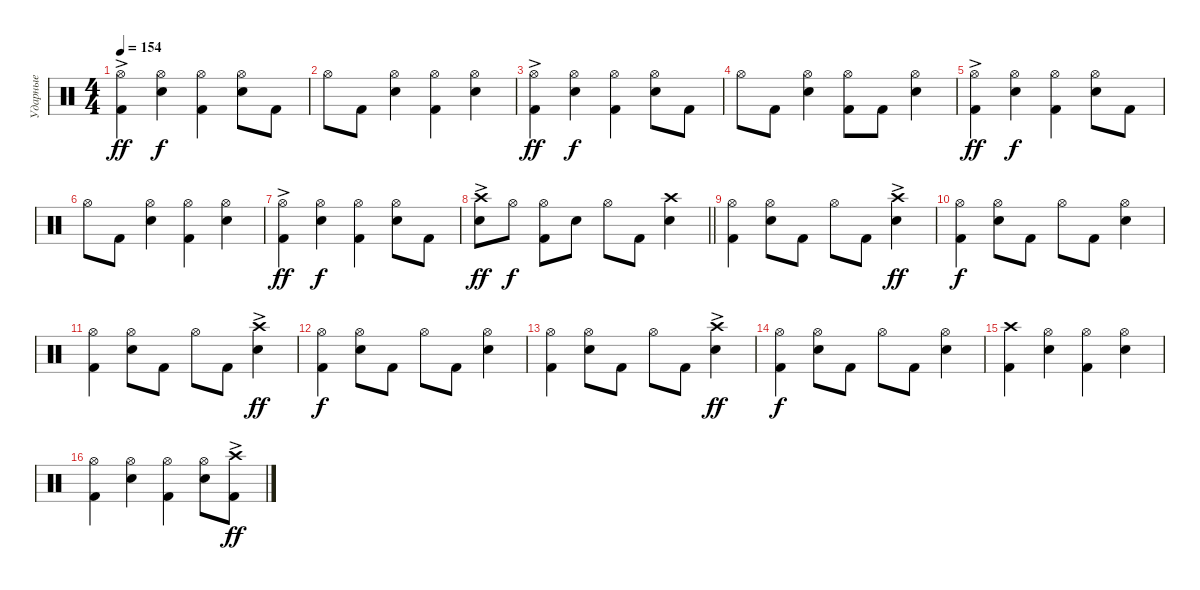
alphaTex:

\track ("Ударные" "Ударные") {instrument percussion}
\staff {score}
\articulation defaults
\ts (4 4)
\tempo 154
\clef neutral
\ks c
("Kick (hit) 2" "Hi-Hat (open)"{ac}).4{dy ff} ("Snare (hit) 2" "Hi-Hat (open)").4{dy f} ("Kick (hit) 2" "Hi-Hat (open)").4 ("Snare (hit) 2" "Hi-Hat (open)").8 "Kick (hit) 2".8 |
"Hi-Hat (open)".8 "Kick (hit) 2".8 ("Snare (hit) 2" "Hi-Hat (open)").4 ("Kick (hit) 2" "Hi-Hat (open)").4 ("Snare (hit) 2" "Hi-Hat (open)").4 |
("Kick (hit) 2" "Hi-Hat (open)"{ac}).4{dy ff} ("Snare (hit) 2" "Hi-Hat (open)").4{dy f} ("Kick (hit) 2" "Hi-Hat (open)").4 ("Snare (hit) 2" "Hi-Hat (open)").8 "Kick (hit) 2".8 |
"Hi-Hat (open)".8 "Kick (hit) 2".8 ("Snare (hit) 2" "Hi-Hat (open)").4 ("Kick (hit) 2" "Hi-Hat (open)").8 "Kick (hit) 2".8 ("Snare (hit) 2" "Hi-Hat (open)").4 |
("Kick (hit) 2" "Hi-Hat (open)"{ac}).4{dy ff} ("Snare (hit) 2" "Hi-Hat (open)").4{dy f} ("Kick (hit) 2" "Hi-Hat (open)").4 ("Snare (hit) 2" "Hi-Hat (open)").8 "Kick (hit) 2".8 |
"Hi-Hat (open)".8 "Kick (hit) 2".8 ("Snare (hit) 2" "Hi-Hat (open)").4 ("Kick (hit) 2" "Hi-Hat (open)").4 ("Snare (hit) 2" "Hi-Hat (open)").4 |
("Kick (hit) 2" "Hi-Hat (open)"{ac}).4{dy ff} ("Snare (hit) 2" "Hi-Hat (open)").4{dy f} ("Kick (hit) 2" "Hi-Hat (open)").4 ("Snare (hit) 2" "Hi-Hat (open)").8 "Kick (hit) 2".8 |
\barLineRight lightlight
("Snare (hit) 2" "Crash high (hit)"{ac}).8{dy ff} "Hi-Hat (open)".8{dy f} ("Kick (hit) 2" "Hi-Hat (open)").8 "Snare (hit) 2".8 "Hi-Hat (open)".8 "Kick (hit) 2".8 ("Snare (hit) 2" "Crash high (hit)").4 |
("Kick (hit) 2" "Hi-Hat (open)").4 ("Snare (hit) 2" "Hi-Hat (open)").8 "Kick (hit) 2".8 "Hi-Hat (open)".8 "Kick (hit) 2".8 ("Snare (hit) 2" "Crash high (hit)"{ac}).4{dy ff} |
("Kick (hit) 2" "Hi-Hat (open)").4{dy f} ("Snare (hit) 2" "Hi-Hat (open)").8 "Kick (hit) 2".8 "Hi-Hat (open)".8 "Kick (hit) 2".8 ("Snare (hit) 2" "Hi-Hat (open)").4 |
("Kick (hit) 2" "Hi-Hat (open)").4 ("Snare (hit) 2" "Hi-Hat (open)").8 "Kick (hit) 2".8 "Hi-Hat (open)".8 "Kick (hit) 2".8 ("Snare (hit) 2" "Crash high (hit)"{ac}).4{dy ff} |
("Kick (hit) 2" "Hi-Hat (open)").4{dy f} ("Snare (hit) 2" "Hi-Hat (open)").8 "Kick (hit) 2".8 "Hi-Hat (open)".8 "Kick (hit) 2".8 ("Snare (hit) 2" "Hi-Hat (open)").4 |
("Kick (hit) 2" "Hi-Hat (open)").4 ("Snare (hit) 2" "Hi-Hat (open)").8 "Kick (hit) 2".8 "Hi-Hat (open)".8 "Kick (hit) 2".8 ("Snare (hit) 2" "Crash high (hit)"{ac}).4{dy ff} |
("Kick (hit) 2" "Hi-Hat (open)").4{dy f} ("Snare (hit) 2" "Hi-Hat (open)").8 "Kick (hit) 2".8 "Hi-Hat (open)".8 "Kick (hit) 2".8 ("Snare (hit) 2" "Hi-Hat (open)").4 |
("Kick (hit) 2" "Crash high (hit)").4 ("Snare (hit) 2" "Hi-Hat (open)").4 ("Kick (hit) 2" "Hi-Hat (open)").4 ("Snare (hit) 2" "Hi-Hat (open)").4 |
("Kick (hit) 2" "Hi-Hat (open)").4 ("Snare (hit) 2" "Hi-Hat (open)").4 ("Kick (hit) 2" "Hi-Hat (open)").4 ("Snare (hit) 2" "Hi-Hat (open)").8 ("Kick (hit) 2" "Crash high (hit)"{ac}).8{dy ff}
